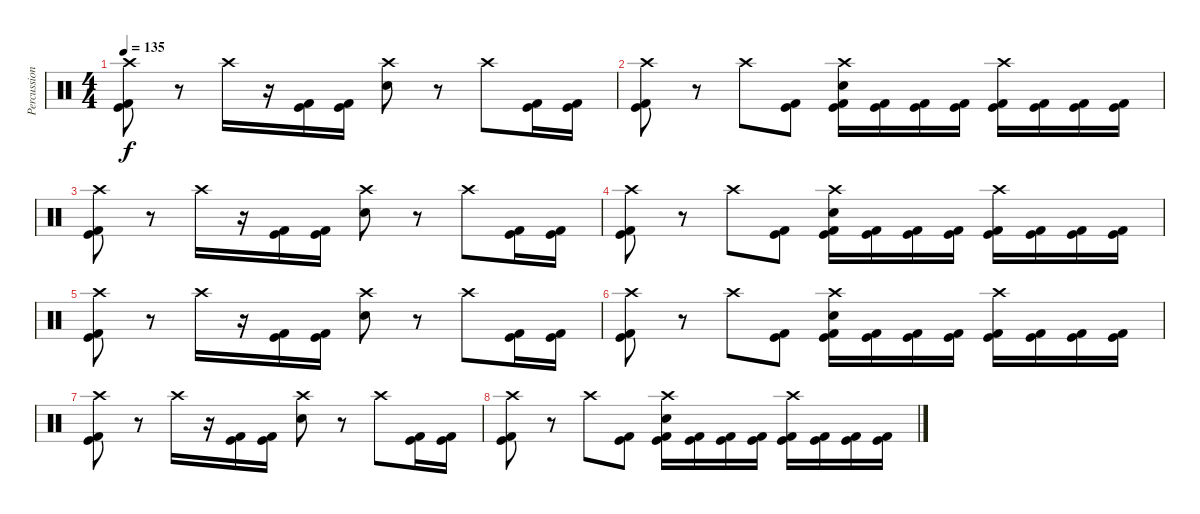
\track ("Percussion" "Percussion") {instrument percussion}
\staff {score}
\articulation defaults
\ts (4 4)
\tempo 135
\clef neutral
\ks c
("Crash high (hit)" "Kick (hit)" "Kick (hit) 2").8{dy f} r.8 "Crash high (hit)".16 r.16 ("Kick (hit)" "Kick (hit) 2").16 ("Kick (hit)" "Kick (hit) 2").16 ("Crash high (hit)" "Electric Snare (hit)").8 r.8 "Crash high (hit)".8 ("Kick (hit)" "Kick (hit) 2").16 ("Kick (hit)" "Kick (hit) 2").16 |
("Crash high (hit)" "Kick (hit)" "Kick (hit) 2").8 r.8 "Crash high (hit)".8 ("Kick (hit)" "Kick (hit) 2").8 ("Crash high (hit)" "Electric Snare (hit)" "Kick (hit)" "Kick (hit) 2").16 ("Kick (hit)" "Kick (hit) 2").16 ("Kick (hit)" "Kick (hit) 2").16 ("Kick (hit)" "Kick (hit) 2").16 ("Crash high (hit)" "Kick (hit)" "Kick (hit) 2").16 ("Kick (hit)" "Kick (hit) 2").16 ("Kick (hit)" "Kick (hit) 2").16 ("Kick (hit)" "Kick (hit) 2").16 |
("Crash high (hit)" "Kick (hit)" "Kick (hit) 2").8 r.8 "Crash high (hit)".16 r.16 ("Kick (hit)" "Kick (hit) 2").16 ("Kick (hit)" "Kick (hit) 2").16 ("Crash high (hit)" "Electric Snare (hit)").8 r.8 "Crash high (hit)".8 ("Kick (hit)" "Kick (hit) 2").16 ("Kick (hit)" "Kick (hit) 2").16 |
("Crash high (hit)" "Kick (hit)" "Kick (hit) 2").8 r.8 "Crash high (hit)".8 ("Kick (hit)" "Kick (hit) 2").8 ("Crash high (hit)" "Electric Snare (hit)" "Kick (hit)" "Kick (hit) 2").16 ("Kick (hit)" "Kick (hit) 2").16 ("Kick (hit)" "Kick (hit) 2").16 ("Kick (hit)" "Kick (hit) 2").16 ("Crash high (hit)" "Kick (hit)" "Kick (hit) 2").16 ("Kick (hit)" "Kick (hit) 2").16 ("Kick (hit)" "Kick (hit) 2").16 ("Kick (hit)" "Kick (hit) 2").16 |
("Crash high (hit)" "Kick (hit)" "Kick (hit) 2").8 r.8 "Crash high (hit)".16 r.16 ("Kick (hit)" "Kick (hit) 2").16 ("Kick (hit)" "Kick (hit) 2").16 ("Crash high (hit)" "Electric Snare (hit)").8 r.8 "Crash high (hit)".8 ("Kick (hit)" "Kick (hit) 2").16 ("Kick (hit)" "Kick (hit) 2").16 |
("Crash high (hit)" "Kick (hit)" "Kick (hit) 2").8 r.8 "Crash high (hit)".8 ("Kick (hit)" "Kick (hit) 2").8 ("Crash high (hit)" "Electric Snare (hit)" "Kick (hit)" "Kick (hit) 2").16 ("Kick (hit)" "Kick (hit) 2").16 ("Kick (hit)" "Kick (hit) 2").16 ("Kick (hit)" "Kick (hit) 2").16 ("Crash high (hit)" "Kick (hit)" "Kick (hit) 2").16 ("Kick (hit)" "Kick (hit) 2").16 ("Kick (hit)" "Kick (hit) 2").16 ("Kick (hit)" "Kick (hit) 2").16 |
("Crash high (hit)" "Kick (hit)" "Kick (hit) 2").8 r.8 "Crash high (hit)".16 r.16 ("Kick (hit)" "Kick (hit) 2").16 ("Kick (hit)" "Kick (hit) 2").16 ("Crash high (hit)" "Electric Snare (hit)").8 r.8 "Crash high (hit)".8 ("Kick (hit)" "Kick (hit) 2").16 ("Kick (hit)" "Kick (hit) 2").16 |
("Crash high (hit)" "Kick (hit)" "Kick (hit) 2").8 r.8 "Crash high (hit)".8 ("Kick (hit)" "Kick (hit) 2").8 ("Crash high (hit)" "Electric Snare (hit)" "Kick (hit)" "Kick (hit) 2").16 ("Kick (hit)" "Kick (hit) 2").16 ("Kick (hit)" "Kick (hit) 2").16 ("Kick (hit)" "Kick (hit) 2").16 ("Crash high (hit)" "Kick (hit)" "Kick (hit) 2").16 ("Kick (hit)" "Kick (hit) 2").16 ("Kick (hit)" "Kick (hit) 2").16 ("Kick (hit)" "Kick (hit) 2").16
